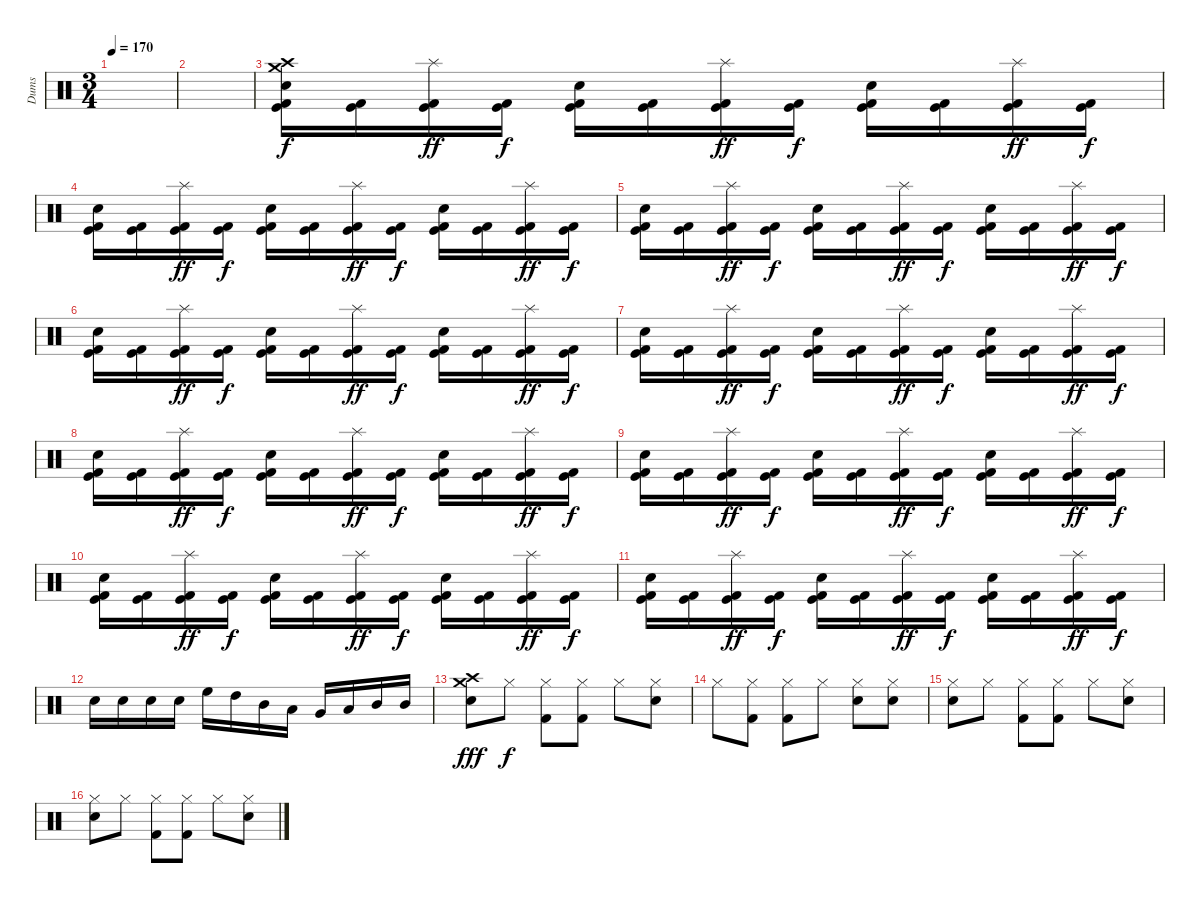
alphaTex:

\track ("Dums" "Dums") {instrument percussion}
\staff {score}
\articulation defaults
\ts (3 4)
\tempo 170
\clef neutral
\ks c
|
|
("Crash high (hit)" "Crash medium (hit)" "Electric Snare (hit)" "Kick (hit)" "Kick (hit) 2").16 ("Kick (hit)" "Kick (hit) 2").16{dy f} ("Splash (hit)" "Kick (hit)" "Kick (hit) 2").16{dy ff} ("Kick (hit)" "Kick (hit) 2").16{dy f} ("Electric Snare (hit)" "Kick (hit)" "Kick (hit) 2").16 ("Kick (hit)" "Kick (hit) 2").16 ("Splash (hit)" "Kick (hit)" "Kick (hit) 2").16{dy ff} ("Kick (hit)" "Kick (hit) 2").16{dy f} ("Electric Snare (hit)" "Kick (hit)" "Kick (hit) 2").16 ("Kick (hit)" "Kick (hit) 2").16 ("Splash (hit)" "Kick (hit)" "Kick (hit) 2").16{dy ff} ("Kick (hit)" "Kick (hit) 2").16{dy f} |
("Electric Snare (hit)" "Kick (hit)" "Kick (hit) 2").16 ("Kick (hit)" "Kick (hit) 2").16 ("Splash (hit)" "Kick (hit)" "Kick (hit) 2").16{dy ff} ("Kick (hit)" "Kick (hit) 2").16{dy f} ("Electric Snare (hit)" "Kick (hit)" "Kick (hit) 2").16 ("Kick (hit)" "Kick (hit) 2").16 ("Splash (hit)" "Kick (hit)" "Kick (hit) 2").16{dy ff} ("Kick (hit)" "Kick (hit) 2").16{dy f} ("Electric Snare (hit)" "Kick (hit)" "Kick (hit) 2").16 ("Kick (hit)" "Kick (hit) 2").16 ("Splash (hit)" "Kick (hit)" "Kick (hit) 2").16{dy ff} ("Kick (hit)" "Kick (hit) 2").16{dy f} |
("Electric Snare (hit)" "Kick (hit)" "Kick (hit) 2").16 ("Kick (hit)" "Kick (hit) 2").16 ("Splash (hit)" "Kick (hit)" "Kick (hit) 2").16{dy ff} ("Kick (hit)" "Kick (hit) 2").16{dy f} ("Electric Snare (hit)" "Kick (hit)" "Kick (hit) 2").16 ("Kick (hit)" "Kick (hit) 2").16 ("Splash (hit)" "Kick (hit)" "Kick (hit) 2").16{dy ff} ("Kick (hit)" "Kick (hit) 2").16{dy f} ("Electric Snare (hit)" "Kick (hit)" "Kick (hit) 2").16 ("Kick (hit)" "Kick (hit) 2").16 ("Splash (hit)" "Kick (hit)" "Kick (hit) 2").16{dy ff} ("Kick (hit)" "Kick (hit) 2").16{dy f} |
("Electric Snare (hit)" "Kick (hit)" "Kick (hit) 2").16 ("Kick (hit)" "Kick (hit) 2").16 ("Splash (hit)" "Kick (hit)" "Kick (hit) 2").16{dy ff} ("Kick (hit)" "Kick (hit) 2").16{dy f} ("Electric Snare (hit)" "Kick (hit)" "Kick (hit) 2").16 ("Kick (hit)" "Kick (hit) 2").16 ("Splash (hit)" "Kick (hit)" "Kick (hit) 2").16{dy ff} ("Kick (hit)" "Kick (hit) 2").16{dy f} ("Electric Snare (hit)" "Kick (hit)" "Kick (hit) 2").16 ("Kick (hit)" "Kick (hit) 2").16 ("Splash (hit)" "Kick (hit)" "Kick (hit) 2").16{dy ff} ("Kick (hit)" "Kick (hit) 2").16{dy f} |
("Electric Snare (hit)" "Kick (hit)" "Kick (hit) 2").16 ("Kick (hit)" "Kick (hit) 2").16 ("Splash (hit)" "Kick (hit)" "Kick (hit) 2").16{dy ff} ("Kick (hit)" "Kick (hit) 2").16{dy f} ("Electric Snare (hit)" "Kick (hit)" "Kick (hit) 2").16 ("Kick (hit)" "Kick (hit) 2").16 ("Splash (hit)" "Kick (hit)" "Kick (hit) 2").16{dy ff} ("Kick (hit)" "Kick (hit) 2").16{dy f} ("Electric Snare (hit)" "Kick (hit)" "Kick (hit) 2").16 ("Kick (hit)" "Kick (hit) 2").16 ("Splash (hit)" "Kick (hit)" "Kick (hit) 2").16{dy ff} ("Kick (hit)" "Kick (hit) 2").16{dy f} |
("Electric Snare (hit)" "Kick (hit)" "Kick (hit) 2").16 ("Kick (hit)" "Kick (hit) 2").16 ("Splash (hit)" "Kick (hit)" "Kick (hit) 2").16{dy ff} ("Kick (hit)" "Kick (hit) 2").16{dy f} ("Electric Snare (hit)" "Kick (hit)" "Kick (hit) 2").16 ("Kick (hit)" "Kick (hit) 2").16 ("Splash (hit)" "Kick (hit)" "Kick (hit) 2").16{dy ff} ("Kick (hit)" "Kick (hit) 2").16{dy f} ("Electric Snare (hit)" "Kick (hit)" "Kick (hit) 2").16 ("Kick (hit)" "Kick (hit) 2").16 ("Splash (hit)" "Kick (hit)" "Kick (hit) 2").16{dy ff} ("Kick (hit)" "Kick (hit) 2").16{dy f} |
("Electric Snare (hit)" "Kick (hit)" "Kick (hit) 2").16 ("Kick (hit)" "Kick (hit) 2").16 ("Splash (hit)" "Kick (hit)" "Kick (hit) 2").16{dy ff} ("Kick (hit)" "Kick (hit) 2").16{dy f} ("Electric Snare (hit)" "Kick (hit)" "Kick (hit) 2").16 ("Kick (hit)" "Kick (hit) 2").16 ("Splash (hit)" "Kick (hit)" "Kick (hit) 2").16{dy ff} ("Kick (hit)" "Kick (hit) 2").16{dy f} ("Electric Snare (hit)" "Kick (hit)" "Kick (hit) 2").16 ("Kick (hit)" "Kick (hit) 2").16 ("Splash (hit)" "Kick (hit)" "Kick (hit) 2").16{dy ff} ("Kick (hit)" "Kick (hit) 2").16{dy f} |
("Electric Snare (hit)" "Kick (hit)" "Kick (hit) 2").16 ("Kick (hit)" "Kick (hit) 2").16 ("Splash (hit)" "Kick (hit)" "Kick (hit) 2").16{dy ff} ("Kick (hit)" "Kick (hit) 2").16{dy f} ("Electric Snare (hit)" "Kick (hit)" "Kick (hit) 2").16 ("Kick (hit)" "Kick (hit) 2").16 ("Splash (hit)" "Kick (hit)" "Kick (hit) 2").16{dy ff} ("Kick (hit)" "Kick (hit) 2").16{dy f} ("Electric Snare (hit)" "Kick (hit)" "Kick (hit) 2").16 ("Kick (hit)" "Kick (hit) 2").16 ("Splash (hit)" "Kick (hit)" "Kick (hit) 2").16{dy ff} ("Kick (hit)" "Kick (hit) 2").16{dy f} |
("Electric Snare (hit)" "Kick (hit)" "Kick (hit) 2").16 ("Kick (hit)" "Kick (hit) 2").16 ("Splash (hit)" "Kick (hit)" "Kick (hit) 2").16{dy ff} ("Kick (hit)" "Kick (hit) 2").16{dy f} ("Electric Snare (hit)" "Kick (hit)" "Kick (hit) 2").16 ("Kick (hit)" "Kick (hit) 2").16 ("Splash (hit)" "Kick (hit)" "Kick (hit) 2").16{dy ff} ("Kick (hit)" "Kick (hit) 2").16{dy f} ("Electric Snare (hit)" "Kick (hit)" "Kick (hit) 2").16 ("Kick (hit)" "Kick (hit) 2").16 ("Splash (hit)" "Kick (hit)" "Kick (hit) 2").16{dy ff} ("Kick (hit)" "Kick (hit) 2").16{dy f} |
"Electric Snare (hit)".16 "Electric Snare (hit)".16 "Electric Snare (hit)".16 "Electric Snare (hit)".16 "High Floor Tom (hit)".16 "High Tom (hit)".16 "Mid Tom (hit)".16 "Low Tom (hit)".16 "Very Low Tom (hit)".16 "Low Tom (hit)".16 "Mid Tom (hit)".16 "Mid Tom (hit)".16 |
("Crash high (hit)" "Crash medium (hit)" "Electric Snare (hit)").8{dy fff} "Hi-Hat (closed)".8{dy f} ("Hi-Hat (closed)" "Kick (hit) 2").8 ("Hi-Hat (closed)" "Kick (hit) 2").8 "Hi-Hat (closed)".8 ("Hi-Hat (closed)" "Electric Snare (hit)").8 |
"Hi-Hat (closed)".8 ("Hi-Hat (closed)" "Kick (hit) 2").8 ("Hi-Hat (closed)" "Kick (hit) 2").8 "Hi-Hat (closed)".8 ("Hi-Hat (closed)" "Electric Snare (hit)").8 ("Hi-Hat (closed)" "Electric Snare (hit)").8 |
("Hi-Hat (closed)" "Electric Snare (hit)").8 "Hi-Hat (closed)".8 ("Hi-Hat (closed)" "Kick (hit) 2").8 ("Hi-Hat (closed)" "Kick (hit) 2").8 "Hi-Hat (closed)".8 ("Hi-Hat (closed)" "Electric Snare (hit)").8 |
("Hi-Hat (closed)" "Electric Snare (hit)").8 "Hi-Hat (closed)".8 ("Hi-Hat (closed)" "Kick (hit) 2").8 ("Hi-Hat (closed)" "Kick (hit) 2").8 "Hi-Hat (closed)".8 ("Hi-Hat (closed)" "Electric Snare (hit)").8
